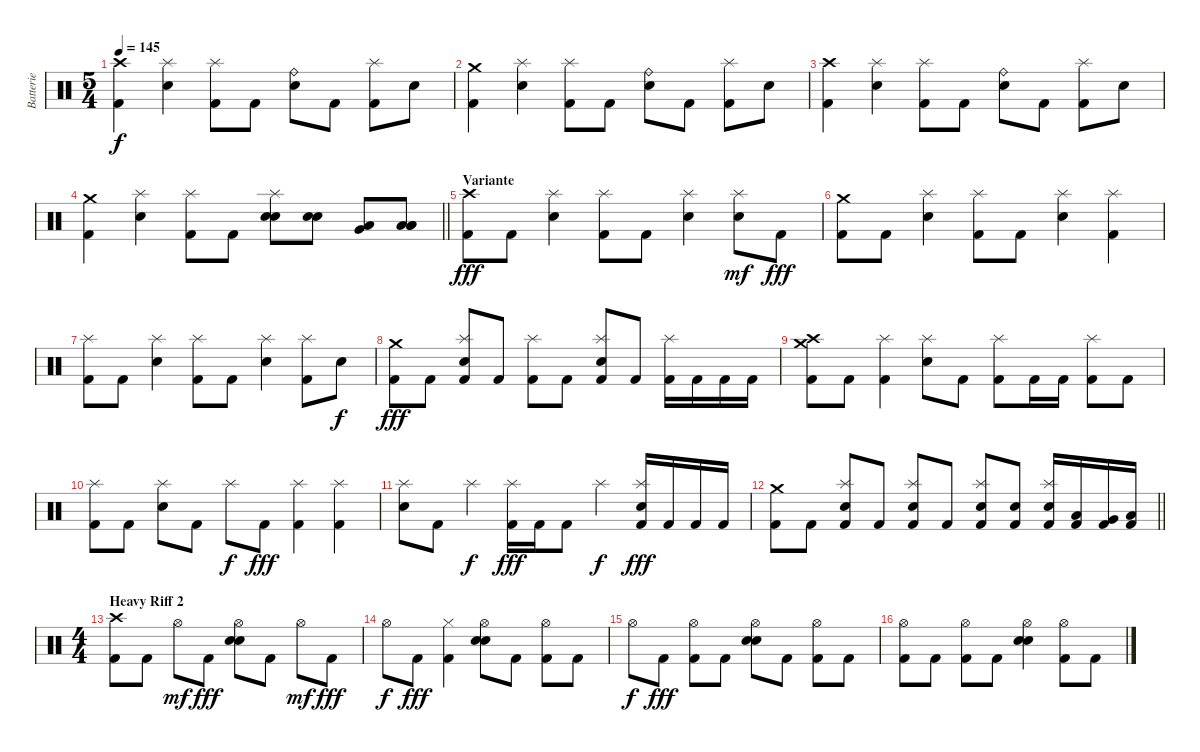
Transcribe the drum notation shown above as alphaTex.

\track ("Batterie" "Batterie") {instrument percussion}
\staff {score}
\articulation defaults
\ts (5 4)
\tempo 145
\clef neutral
\ks c
("Crash high (hit)" "Kick (hit) 2").4{dy f} ("Splash (hit)" "Electric Snare (hit)").4 ("Splash (hit)" "Kick (hit) 2").8 "Kick (hit) 2".8 ("Ride (bell)" "Electric Snare (hit)").8 "Kick (hit) 2".8 ("Splash (hit)" "Kick (hit) 2").8 "Electric Snare (hit)".8 |
("Crash medium (hit)" "Kick (hit) 2").4 ("Splash (hit)" "Electric Snare (hit)").4 ("Splash (hit)" "Kick (hit) 2").8 "Kick (hit) 2".8 ("Ride (bell)" "Electric Snare (hit)").8 "Kick (hit) 2".8 ("Splash (hit)" "Kick (hit) 2").8 "Electric Snare (hit)".8 |
("Crash high (hit)" "Kick (hit) 2").4 ("Splash (hit)" "Electric Snare (hit)").4 ("Splash (hit)" "Kick (hit) 2").8 "Kick (hit) 2".8 ("Ride (bell)" "Electric Snare (hit)").8 "Kick (hit) 2".8 ("Splash (hit)" "Kick (hit) 2").8 "Electric Snare (hit)".8 |
\barLineRight lightlight
("Crash medium (hit)" "Kick (hit) 2").4 ("Splash (hit)" "Electric Snare (hit)").4 ("Splash (hit)" "Kick (hit) 2").8 "Kick (hit) 2".8 ("Splash (hit)" "Electric Snare (hit)" "Electric Snare (hit)").8 ("Electric Snare (hit)" "Electric Snare (hit)").8 ("Very Low Tom (hit)" "Low Floor Tom (hit)").8 ("Low Tom (hit)" "Low Floor Tom (hit)" "Low Floor Tom (hit)").8 |
\section ("" "Variante")
("Crash high (hit)" "Kick (hit) 2").8{dy fff} "Kick (hit) 2".8 ("Splash (hit)" "Electric Snare (hit)").4 ("Splash (hit)" "Kick (hit) 2").8 "Kick (hit) 2".8 ("Splash (hit)" "Electric Snare (hit)").4 ("Splash (hit)" "Electric Snare (hit)").8{dy mf} "Kick (hit) 2".8{dy fff} |
("Crash medium (hit)" "Kick (hit) 2").8 "Kick (hit) 2".8 ("Splash (hit)" "Electric Snare (hit)").4 ("Splash (hit)" "Kick (hit) 2").8 "Kick (hit) 2".8 ("Splash (hit)" "Electric Snare (hit)").4 ("Splash (hit)" "Kick (hit) 2").4 |
("Splash (hit)" "Kick (hit) 2").8 "Kick (hit) 2".8 ("Splash (hit)" "Electric Snare (hit)").4 ("Splash (hit)" "Kick (hit) 2").8 "Kick (hit) 2".8 ("Splash (hit)" "Electric Snare (hit)").4 ("Splash (hit)" "Kick (hit) 2").8 "Electric Snare (hit)".8{dy f} |
("Crash medium (hit)" "Kick (hit) 2").8{dy fff} "Kick (hit) 2".8 ("Splash (hit)" "Electric Snare (hit)" "Kick (hit) 2").8 "Kick (hit) 2".8 ("Splash (hit)" "Kick (hit) 2").8 "Kick (hit) 2".8 ("Splash (hit)" "Electric Snare (hit)" "Kick (hit) 2").8 "Kick (hit) 2".8 ("Splash (hit)" "Kick (hit) 2").16 "Kick (hit) 2".16 "Kick (hit) 2".16 "Kick (hit) 2".16 |
("Crash high (hit)" "Crash medium (hit)" "Kick (hit) 2").8 "Kick (hit) 2".8 ("Splash (hit)" "Kick (hit) 2").4 ("Splash (hit)" "Electric Snare (hit)").8 "Kick (hit) 2".8 ("Splash (hit)" "Kick (hit) 2").8 "Kick (hit) 2".16 "Kick (hit) 2".16 ("Splash (hit)" "Kick (hit) 2").8 "Kick (hit) 2".8 |
("Splash (hit)" "Kick (hit) 2").8 "Kick (hit) 2".8 ("Splash (hit)" "Electric Snare (hit)").8 "Kick (hit) 2".8 "Splash (hit)".8{dy f} "Kick (hit) 2".8{dy fff} ("Splash (hit)" "Kick (hit) 2").4 ("Splash (hit)" "Kick (hit) 2").4 |
("Splash (hit)" "Electric Snare (hit)").8 "Kick (hit) 2".8 "Splash (hit)".4{dy f} ("Splash (hit)" "Kick (hit) 2").16{dy fff} "Kick (hit) 2".16 "Kick (hit) 2".8 "Splash (hit)".4{dy f} ("Splash (hit)" "Electric Snare (hit)" "Kick (hit) 2").16{dy fff} "Kick (hit) 2".16 "Kick (hit) 2".16 "Kick (hit) 2".16 |
\barLineRight lightlight
("Crash medium (hit)" "Kick (hit) 2").8 "Kick (hit) 2".8 ("Splash (hit)" "Electric Snare (hit)" "Kick (hit) 2").8 "Kick (hit) 2".8 ("Splash (hit)" "Electric Snare (hit)" "Kick (hit) 2").8 "Kick (hit) 2".8 ("Splash (hit)" "Electric Snare (hit)" "Kick (hit) 2").8 ("Electric Snare (hit)" "Kick (hit) 2").8 ("Splash (hit)" "Electric Snare (hit)" "Kick (hit) 2").16 ("Low Tom (hit)" "Kick (hit) 2").16 ("Very Low Tom (hit)" "Kick (hit) 2").16 ("Low Floor Tom (hit)" "Kick (hit) 2").16 |
\ts (4 4)
\section ("" "Heavy Riff 2")
("Crash high (hit)" "Kick (hit) 2").8 "Kick (hit) 2".8 "Hi-Hat (open)".8{dy mf} "Kick (hit) 2".8{dy fff} ("Hi-Hat (open)" "Electric Snare (hit)" "Electric Snare (hit)").8 "Kick (hit) 2".8 "Hi-Hat (open)".8{dy mf} "Kick (hit) 2".8{dy fff} |
"Hi-Hat (open)".8{dy f} "Kick (hit) 2".8{dy fff} ("Hi-Hat (closed)" "Kick (hit) 2").4 ("Hi-Hat (open)" "Electric Snare (hit)" "Electric Snare (hit)").8 "Kick (hit) 2".8 ("Hi-Hat (open)" "Kick (hit) 2").8 "Kick (hit) 2".8 |
"Hi-Hat (open)".8{dy f} "Kick (hit) 2".8{dy fff} ("Hi-Hat (open)" "Kick (hit) 2").8 "Kick (hit) 2".8 ("Hi-Hat (open)" "Electric Snare (hit)" "Electric Snare (hit)").8 "Kick (hit) 2".8 ("Hi-Hat (open)" "Kick (hit) 2").8 "Kick (hit) 2".8 |
("Hi-Hat (open)" "Kick (hit) 2").8 "Kick (hit) 2".8 ("Hi-Hat (open)" "Kick (hit) 2").8 "Kick (hit) 2".8 ("Hi-Hat (open)" "Electric Snare (hit)" "Electric Snare (hit)").4 ("Hi-Hat (open)" "Kick (hit) 2").8 "Kick (hit) 2".8
